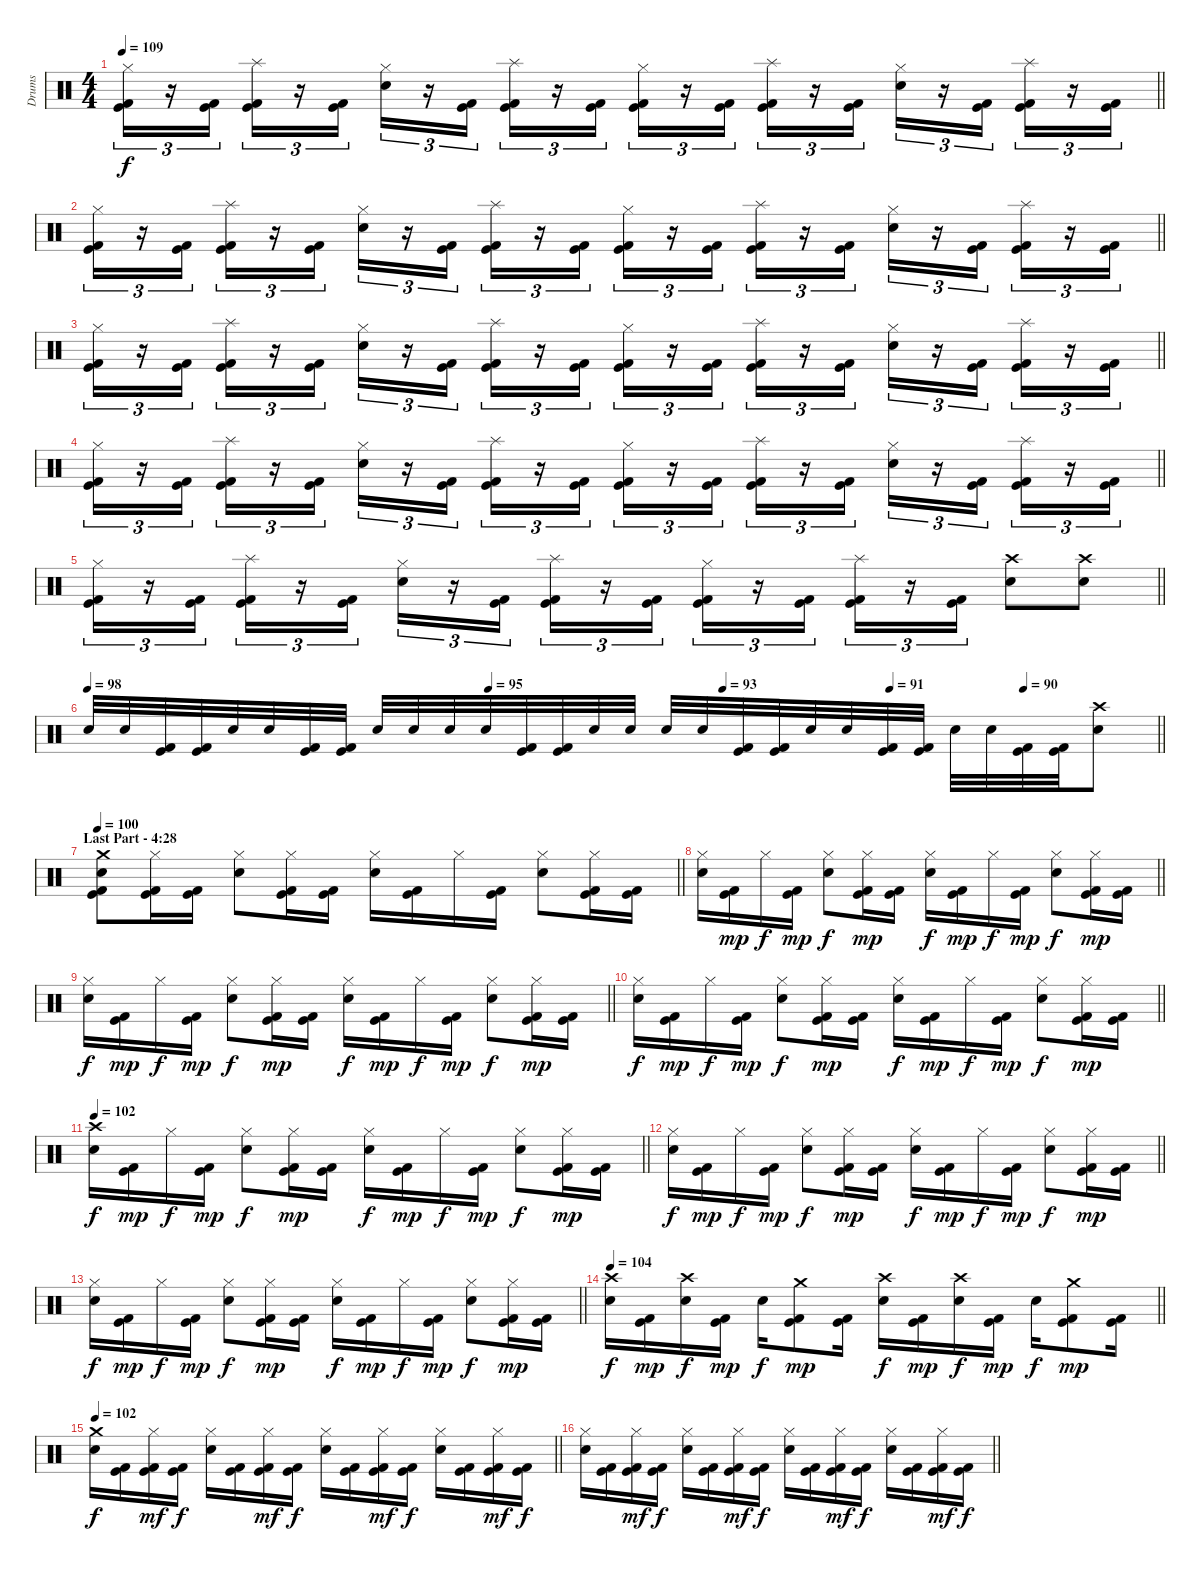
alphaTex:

\track ("Drums" "Drums") {instrument percussion}
\staff {score}
\articulation defaults
\ts (4 4)
\tempo 109
\clef neutral
\barLineRight lightlight
\ks c
("Hi-Hat (closed)" "Kick (hit)" "Kick (hit) 2").16{tu (3 2) dy f} r.16{tu (3 2)} ("Kick (hit)" "Kick (hit) 2").16{tu (3 2)} ("Splash (hit)" "Kick (hit)" "Kick (hit) 2").16{tu (3 2)} r.16{tu (3 2)} ("Kick (hit)" "Kick (hit) 2").16{tu (3 2)} ("Hi-Hat (closed)" "Electric Snare (hit)").16{tu (3 2)} r.16{tu (3 2)} ("Kick (hit)" "Kick (hit) 2").16{tu (3 2)} ("Splash (hit)" "Kick (hit)" "Kick (hit) 2").16{tu (3 2)} r.16{tu (3 2)} ("Kick (hit)" "Kick (hit) 2").16{tu (3 2)} ("Hi-Hat (closed)" "Kick (hit)" "Kick (hit) 2").16{tu (3 2)} r.16{tu (3 2)} ("Kick (hit)" "Kick (hit) 2").16{tu (3 2)} ("Splash (hit)" "Kick (hit)" "Kick (hit) 2").16{tu (3 2)} r.16{tu (3 2)} ("Kick (hit)" "Kick (hit) 2").16{tu (3 2)} ("Hi-Hat (closed)" "Electric Snare (hit)").16{tu (3 2)} r.16{tu (3 2)} ("Kick (hit)" "Kick (hit) 2").16{tu (3 2)} ("Splash (hit)" "Kick (hit)" "Kick (hit) 2").16{tu (3 2)} r.16{tu (3 2)} ("Kick (hit)" "Kick (hit) 2").16{tu (3 2)} |
\barLineRight lightlight
("Hi-Hat (closed)" "Kick (hit)" "Kick (hit) 2").16{tu (3 2)} r.16{tu (3 2)} ("Kick (hit)" "Kick (hit) 2").16{tu (3 2)} ("Splash (hit)" "Kick (hit)" "Kick (hit) 2").16{tu (3 2)} r.16{tu (3 2)} ("Kick (hit)" "Kick (hit) 2").16{tu (3 2)} ("Hi-Hat (closed)" "Electric Snare (hit)").16{tu (3 2)} r.16{tu (3 2)} ("Kick (hit)" "Kick (hit) 2").16{tu (3 2)} ("Splash (hit)" "Kick (hit)" "Kick (hit) 2").16{tu (3 2)} r.16{tu (3 2)} ("Kick (hit)" "Kick (hit) 2").16{tu (3 2)} ("Hi-Hat (closed)" "Kick (hit)" "Kick (hit) 2").16{tu (3 2)} r.16{tu (3 2)} ("Kick (hit)" "Kick (hit) 2").16{tu (3 2)} ("Splash (hit)" "Kick (hit)" "Kick (hit) 2").16{tu (3 2)} r.16{tu (3 2)} ("Kick (hit)" "Kick (hit) 2").16{tu (3 2)} ("Hi-Hat (closed)" "Electric Snare (hit)").16{tu (3 2)} r.16{tu (3 2)} ("Kick (hit)" "Kick (hit) 2").16{tu (3 2)} ("Splash (hit)" "Kick (hit)" "Kick (hit) 2").16{tu (3 2)} r.16{tu (3 2)} ("Kick (hit)" "Kick (hit) 2").16{tu (3 2)} |
\barLineRight lightlight
("Hi-Hat (closed)" "Kick (hit)" "Kick (hit) 2").16{tu (3 2)} r.16{tu (3 2)} ("Kick (hit)" "Kick (hit) 2").16{tu (3 2)} ("Splash (hit)" "Kick (hit)" "Kick (hit) 2").16{tu (3 2)} r.16{tu (3 2)} ("Kick (hit)" "Kick (hit) 2").16{tu (3 2)} ("Hi-Hat (closed)" "Electric Snare (hit)").16{tu (3 2)} r.16{tu (3 2)} ("Kick (hit)" "Kick (hit) 2").16{tu (3 2)} ("Splash (hit)" "Kick (hit)" "Kick (hit) 2").16{tu (3 2)} r.16{tu (3 2)} ("Kick (hit)" "Kick (hit) 2").16{tu (3 2)} ("Hi-Hat (closed)" "Kick (hit)" "Kick (hit) 2").16{tu (3 2)} r.16{tu (3 2)} ("Kick (hit)" "Kick (hit) 2").16{tu (3 2)} ("Splash (hit)" "Kick (hit)" "Kick (hit) 2").16{tu (3 2)} r.16{tu (3 2)} ("Kick (hit)" "Kick (hit) 2").16{tu (3 2)} ("Hi-Hat (closed)" "Electric Snare (hit)").16{tu (3 2)} r.16{tu (3 2)} ("Kick (hit)" "Kick (hit) 2").16{tu (3 2)} ("Splash (hit)" "Kick (hit)" "Kick (hit) 2").16{tu (3 2)} r.16{tu (3 2)} ("Kick (hit)" "Kick (hit) 2").16{tu (3 2)} |
\barLineRight lightlight
("Hi-Hat (closed)" "Kick (hit)" "Kick (hit) 2").16{tu (3 2)} r.16{tu (3 2)} ("Kick (hit)" "Kick (hit) 2").16{tu (3 2)} ("Splash (hit)" "Kick (hit)" "Kick (hit) 2").16{tu (3 2)} r.16{tu (3 2)} ("Kick (hit)" "Kick (hit) 2").16{tu (3 2)} ("Hi-Hat (closed)" "Electric Snare (hit)").16{tu (3 2)} r.16{tu (3 2)} ("Kick (hit)" "Kick (hit) 2").16{tu (3 2)} ("Splash (hit)" "Kick (hit)" "Kick (hit) 2").16{tu (3 2)} r.16{tu (3 2)} ("Kick (hit)" "Kick (hit) 2").16{tu (3 2)} ("Hi-Hat (closed)" "Kick (hit)" "Kick (hit) 2").16{tu (3 2)} r.16{tu (3 2)} ("Kick (hit)" "Kick (hit) 2").16{tu (3 2)} ("Splash (hit)" "Kick (hit)" "Kick (hit) 2").16{tu (3 2)} r.16{tu (3 2)} ("Kick (hit)" "Kick (hit) 2").16{tu (3 2)} ("Hi-Hat (closed)" "Electric Snare (hit)").16{tu (3 2)} r.16{tu (3 2)} ("Kick (hit)" "Kick (hit) 2").16{tu (3 2)} ("Splash (hit)" "Kick (hit)" "Kick (hit) 2").16{tu (3 2)} r.16{tu (3 2)} ("Kick (hit)" "Kick (hit) 2").16{tu (3 2)} |
\barLineRight lightlight
("Hi-Hat (closed)" "Kick (hit)" "Kick (hit) 2").16{tu (3 2)} r.16{tu (3 2)} ("Kick (hit)" "Kick (hit) 2").16{tu (3 2)} ("Splash (hit)" "Kick (hit)" "Kick (hit) 2").16{tu (3 2)} r.16{tu (3 2)} ("Kick (hit)" "Kick (hit) 2").16{tu (3 2)} ("Hi-Hat (closed)" "Electric Snare (hit)").16{tu (3 2)} r.16{tu (3 2)} ("Kick (hit)" "Kick (hit) 2").16{tu (3 2)} ("Splash (hit)" "Kick (hit)" "Kick (hit) 2").16{tu (3 2)} r.16{tu (3 2)} ("Kick (hit)" "Kick (hit) 2").16{tu (3 2)} ("Hi-Hat (closed)" "Kick (hit)" "Kick (hit) 2").16{tu (3 2)} r.16{tu (3 2)} ("Kick (hit)" "Kick (hit) 2").16{tu (3 2)} ("Splash (hit)" "Kick (hit)" "Kick (hit) 2").16{tu (3 2)} r.16{tu (3 2)} ("Kick (hit)" "Kick (hit) 2").16{tu (3 2)} ("Crash high (hit)" "Electric Snare (hit)").8 ("Crash high (hit)" "Electric Snare (hit)").8 |
\tempo 98
\tempo (95 0.375)
\tempo (93 0.59375)
\tempo (91 0.75)
\tempo (90 0.875)
\barLineRight lightlight "Electric Snare (hit)".32 "Electric Snare (hit)".32
("Kick (hit)" "Kick (hit) 2").32 ("Kick (hit)" "Kick (hit) 2").32 "Electric Snare (hit)".32 "Electric Snare (hit)".32 ("Kick (hit)" "Kick (hit) 2").32 ("Kick (hit)" "Kick (hit) 2").32 "Electric Snare (hit)".32 "Electric Snare (hit)".32 "Electric Snare (hit)".32 "Electric Snare (hit)".32 ("Kick (hit)" "Kick (hit) 2").32 ("Kick (hit)" "Kick (hit) 2").32 "Electric Snare (hit)".32 "Electric Snare (hit)".32 "Electric Snare (hit)".32 "Electric Snare (hit)".32 ("Kick (hit)" "Kick (hit) 2").32 ("Kick (hit)" "Kick (hit) 2").32 "Electric Snare (hit)".32 "Electric Snare (hit)".32 ("Kick (hit)" "Kick (hit) 2").32 ("Kick (hit)" "Kick (hit) 2").32 "Electric Snare (hit)".32 "Electric Snare (hit)".32 ("Kick (hit)" "Kick (hit) 2").32 ("Kick (hit)" "Kick (hit) 2").32 ("Crash high (hit)" "Electric Snare (hit)").8 |
\section ("" "Last Part - 4:28")
\tempo 100
\barLineRight lightlight
("Crash medium (hit)" "Electric Snare (hit)" "Kick (hit)" "Kick (hit) 2").8{bd 30} ("Hi-Hat (closed)" "Kick (hit)" "Kick (hit) 2").16 ("Kick (hit)" "Kick (hit) 2").16 ("Hi-Hat (closed)" "Electric Snare (hit)").8 ("Hi-Hat (closed)" "Kick (hit)" "Kick (hit) 2").16 ("Kick (hit)" "Kick (hit) 2").16 ("Hi-Hat (closed)" "Electric Snare (hit)").16 ("Kick (hit)" "Kick (hit) 2").16 "Hi-Hat (closed)".16 ("Kick (hit)" "Kick (hit) 2").16 ("Hi-Hat (closed)" "Electric Snare (hit)").8 ("Hi-Hat (closed)" "Kick (hit)" "Kick (hit) 2").16 ("Kick (hit)" "Kick (hit) 2").16 |
\barLineRight lightlight
("Hi-Hat (closed)" "Electric Snare (hit)").16 ("Kick (hit)" "Kick (hit) 2").16{dy mp} "Hi-Hat (closed)".16{dy f} ("Kick (hit)" "Kick (hit) 2").16{dy mp} ("Hi-Hat (closed)" "Electric Snare (hit)").8{dy f} ("Hi-Hat (closed)" "Kick (hit)" "Kick (hit) 2").16{dy mp} ("Kick (hit)" "Kick (hit) 2").16 ("Hi-Hat (closed)" "Electric Snare (hit)").16{dy f} ("Kick (hit)" "Kick (hit) 2").16{dy mp} "Hi-Hat (closed)".16{dy f} ("Kick (hit)" "Kick (hit) 2").16{dy mp} ("Hi-Hat (closed)" "Electric Snare (hit)").8{dy f} ("Hi-Hat (closed)" "Kick (hit)" "Kick (hit) 2").16{dy mp} ("Kick (hit)" "Kick (hit) 2").16 |
\barLineRight lightlight
("Hi-Hat (closed)" "Electric Snare (hit)").16{dy f} ("Kick (hit)" "Kick (hit) 2").16{dy mp} "Hi-Hat (closed)".16{dy f} ("Kick (hit)" "Kick (hit) 2").16{dy mp} ("Hi-Hat (closed)" "Electric Snare (hit)").8{dy f} ("Hi-Hat (closed)" "Kick (hit)" "Kick (hit) 2").16{dy mp} ("Kick (hit)" "Kick (hit) 2").16 ("Hi-Hat (closed)" "Electric Snare (hit)").16{dy f} ("Kick (hit)" "Kick (hit) 2").16{dy mp} "Hi-Hat (closed)".16{dy f} ("Kick (hit)" "Kick (hit) 2").16{dy mp} ("Hi-Hat (closed)" "Electric Snare (hit)").8{dy f} ("Hi-Hat (closed)" "Kick (hit)" "Kick (hit) 2").16{dy mp} ("Kick (hit)" "Kick (hit) 2").16 |
\barLineRight lightlight
("Hi-Hat (closed)" "Electric Snare (hit)").16{dy f} ("Kick (hit)" "Kick (hit) 2").16{dy mp} "Hi-Hat (closed)".16{dy f} ("Kick (hit)" "Kick (hit) 2").16{dy mp} ("Hi-Hat (closed)" "Electric Snare (hit)").8{dy f} ("Hi-Hat (closed)" "Kick (hit)" "Kick (hit) 2").16{dy mp} ("Kick (hit)" "Kick (hit) 2").16 ("Hi-Hat (closed)" "Electric Snare (hit)").16{dy f} ("Kick (hit)" "Kick (hit) 2").16{dy mp} "Hi-Hat (closed)".16{dy f} ("Kick (hit)" "Kick (hit) 2").16{dy mp} ("Hi-Hat (closed)" "Electric Snare (hit)").8{dy f} ("Hi-Hat (closed)" "Kick (hit)" "Kick (hit) 2").16{dy mp} ("Kick (hit)" "Kick (hit) 2").16 |
\tempo 102
\barLineRight lightlight
("Crash high (hit)" "Electric Snare (hit)").16{dy f} ("Kick (hit)" "Kick (hit) 2").16{dy mp} "Hi-Hat (closed)".16{dy f} ("Kick (hit)" "Kick (hit) 2").16{dy mp} ("Hi-Hat (closed)" "Electric Snare (hit)").8{dy f} ("Hi-Hat (closed)" "Kick (hit)" "Kick (hit) 2").16{dy mp} ("Kick (hit)" "Kick (hit) 2").16 ("Hi-Hat (closed)" "Electric Snare (hit)").16{dy f} ("Kick (hit)" "Kick (hit) 2").16{dy mp} "Hi-Hat (closed)".16{dy f} ("Kick (hit)" "Kick (hit) 2").16{dy mp} ("Hi-Hat (closed)" "Electric Snare (hit)").8{dy f} ("Hi-Hat (closed)" "Kick (hit)" "Kick (hit) 2").16{dy mp} ("Kick (hit)" "Kick (hit) 2").16 |
\barLineRight lightlight
("Hi-Hat (closed)" "Electric Snare (hit)").16{dy f} ("Kick (hit)" "Kick (hit) 2").16{dy mp} "Hi-Hat (closed)".16{dy f} ("Kick (hit)" "Kick (hit) 2").16{dy mp} ("Hi-Hat (closed)" "Electric Snare (hit)").8{dy f} ("Hi-Hat (closed)" "Kick (hit)" "Kick (hit) 2").16{dy mp} ("Kick (hit)" "Kick (hit) 2").16 ("Hi-Hat (closed)" "Electric Snare (hit)").16{dy f} ("Kick (hit)" "Kick (hit) 2").16{dy mp} "Hi-Hat (closed)".16{dy f} ("Kick (hit)" "Kick (hit) 2").16{dy mp} ("Hi-Hat (closed)" "Electric Snare (hit)").8{dy f} ("Hi-Hat (closed)" "Kick (hit)" "Kick (hit) 2").16{dy mp} ("Kick (hit)" "Kick (hit) 2").16 |
\barLineRight lightlight
("Hi-Hat (closed)" "Electric Snare (hit)").16{dy f} ("Kick (hit)" "Kick (hit) 2").16{dy mp} "Hi-Hat (closed)".16{dy f} ("Kick (hit)" "Kick (hit) 2").16{dy mp} ("Hi-Hat (closed)" "Electric Snare (hit)").8{dy f} ("Hi-Hat (closed)" "Kick (hit)" "Kick (hit) 2").16{dy mp} ("Kick (hit)" "Kick (hit) 2").16 ("Hi-Hat (closed)" "Electric Snare (hit)").16{dy f} ("Kick (hit)" "Kick (hit) 2").16{dy mp} "Hi-Hat (closed)".16{dy f} ("Kick (hit)" "Kick (hit) 2").16{dy mp} ("Hi-Hat (closed)" "Electric Snare (hit)").8{dy f} ("Hi-Hat (closed)" "Kick (hit)" "Kick (hit) 2").16{dy mp} ("Kick (hit)" "Kick (hit) 2").16 |
\tempo 104
\barLineRight lightlight
("Crash high (hit)" "Electric Snare (hit)").16{dy f} ("Kick (hit)" "Kick (hit) 2").16{dy mp} ("Crash high (hit)" "Electric Snare (hit)").16{dy f} ("Kick (hit)" "Kick (hit) 2").16{dy mp} "Electric Snare (hit)".16{dy f} ("Crash medium (hit)" "Kick (hit)" "Kick (hit) 2").8{dy mp} ("Kick (hit)" "Kick (hit) 2").16 ("Crash high (hit)" "Electric Snare (hit)").16{dy f} ("Kick (hit)" "Kick (hit) 2").16{dy mp} ("Crash high (hit)" "Electric Snare (hit)").16{dy f} ("Kick (hit)" "Kick (hit) 2").16{dy mp} "Electric Snare (hit)".16{dy f} ("Crash medium (hit)" "Kick (hit)" "Kick (hit) 2").8{dy mp} ("Kick (hit)" "Kick (hit) 2").16 |
\tempo 102
\barLineRight lightlight
("Crash medium (hit)" "Electric Snare (hit)").16{dy f} ("Kick (hit)" "Kick (hit) 2").16 ("Hi-Hat (closed)" "Kick (hit)" "Kick (hit) 2").16{dy mf} ("Kick (hit)" "Kick (hit) 2").16{dy f} ("Hi-Hat (closed)" "Electric Snare (hit)").16 ("Kick (hit)" "Kick (hit) 2").16 ("Hi-Hat (closed)" "Kick (hit)" "Kick (hit) 2").16{dy mf} ("Kick (hit)" "Kick (hit) 2").16{dy f} ("Hi-Hat (closed)" "Electric Snare (hit)").16 ("Kick (hit)" "Kick (hit) 2").16 ("Hi-Hat (closed)" "Kick (hit)" "Kick (hit) 2").16{dy mf} ("Kick (hit)" "Kick (hit) 2").16{dy f} ("Hi-Hat (closed)" "Electric Snare (hit)").16 ("Kick (hit)" "Kick (hit) 2").16 ("Hi-Hat (closed)" "Kick (hit)" "Kick (hit) 2").16{dy mf} ("Kick (hit)" "Kick (hit) 2").16{dy f} |
\barLineRight lightlight
("Hi-Hat (closed)" "Electric Snare (hit)").16 ("Kick (hit)" "Kick (hit) 2").16 ("Hi-Hat (closed)" "Kick (hit)" "Kick (hit) 2").16{dy mf} ("Kick (hit)" "Kick (hit) 2").16{dy f} ("Hi-Hat (closed)" "Electric Snare (hit)").16 ("Kick (hit)" "Kick (hit) 2").16 ("Hi-Hat (closed)" "Kick (hit)" "Kick (hit) 2").16{dy mf} ("Kick (hit)" "Kick (hit) 2").16{dy f} ("Hi-Hat (closed)" "Electric Snare (hit)").16 ("Kick (hit)" "Kick (hit) 2").16 ("Hi-Hat (closed)" "Kick (hit)" "Kick (hit) 2").16{dy mf} ("Kick (hit)" "Kick (hit) 2").16{dy f} ("Hi-Hat (closed)" "Electric Snare (hit)").16 ("Kick (hit)" "Kick (hit) 2").16 ("Hi-Hat (closed)" "Kick (hit)" "Kick (hit) 2").16{dy mf} ("Kick (hit)" "Kick (hit) 2").16{dy f}
